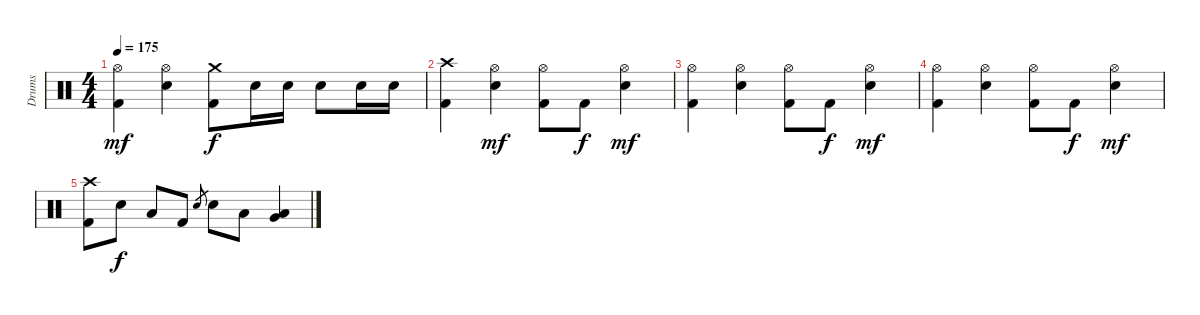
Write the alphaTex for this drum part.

\track ("Drums" "Drums") {instrument percussion}
\staff {score}
\articulation defaults
\ts (4 4)
\tempo 175
\clef neutral
\ks c
("Kick (hit) 2" "Hi-Hat (open)").4{dy mf} ("Hi-Hat (open)" "Electric Snare (hit)").4 ("Kick (hit) 2" "Crash medium (hit)").8{dy f} "Electric Snare (hit)".16 "Electric Snare (hit)".16 "Electric Snare (hit)".8 "Electric Snare (hit)".16 "Electric Snare (hit)".16 |
("Kick (hit) 2" "Crash high (hit)").4 ("Hi-Hat (open)" "Electric Snare (hit)").4{dy mf} ("Kick (hit) 2" "Hi-Hat (open)").8 "Kick (hit) 2".8{dy f} ("Hi-Hat (open)" "Electric Snare (hit)").4{dy mf} |
("Kick (hit) 2" "Hi-Hat (open)").4 ("Hi-Hat (open)" "Electric Snare (hit)").4 ("Kick (hit) 2" "Hi-Hat (open)").8 "Kick (hit) 2".8{dy f} ("Hi-Hat (open)" "Electric Snare (hit)").4{dy mf} |
("Kick (hit) 2" "Hi-Hat (open)").4 ("Hi-Hat (open)" "Electric Snare (hit)").4 ("Kick (hit) 2" "Hi-Hat (open)").8 "Kick (hit) 2".8{dy f} ("Hi-Hat (open)" "Electric Snare (hit)").4{dy mf} |
("Kick (hit) 2" "Crash high (hit)").8 "Electric Snare (hit)".8{dy f} "Low Tom (hit)".8 "Kick (hit) 2".8 "Electric Snare (hit)".8{gr} "Electric Snare (hit)".8 "Low Tom (hit)".8 ("Low Floor Tom (hit)" "Very Low Tom (hit)").4
